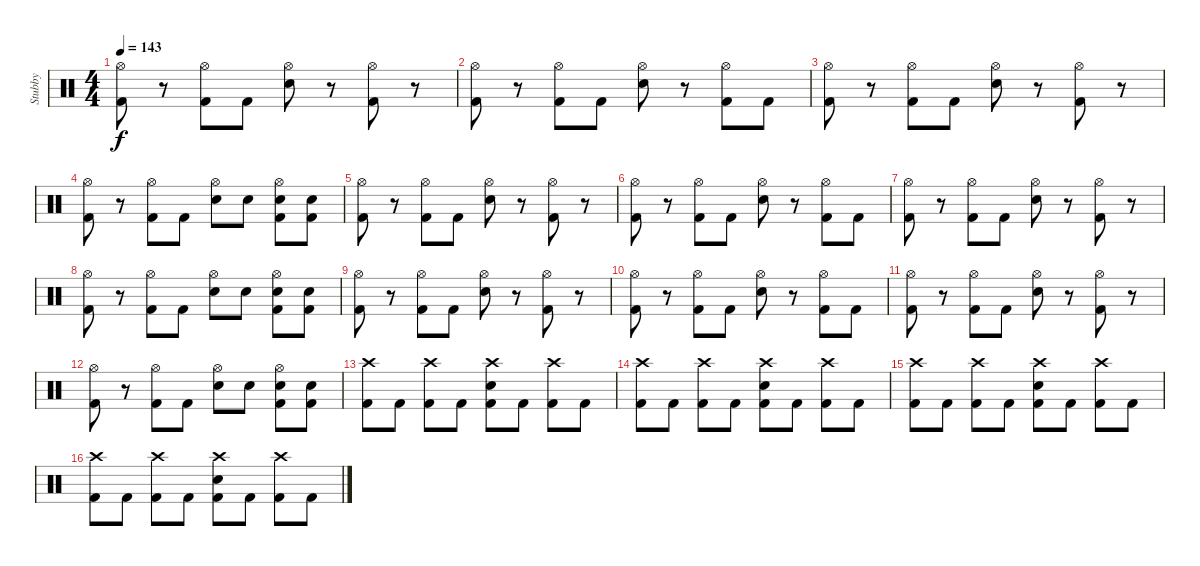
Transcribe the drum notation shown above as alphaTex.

\track ("Stubby" "Stubby") {instrument percussion}
\staff {score}
\articulation defaults
\ts (4 4)
\tempo 143
\clef neutral
\ks c
("Hi-Hat (open)" "Kick (hit) 2").8{dy f} r.8 ("Hi-Hat (open)" "Kick (hit) 2").8 "Kick (hit) 2".8 ("Hi-Hat (open)" "Electric Snare (hit)").8 r.8 ("Hi-Hat (open)" "Kick (hit) 2").8 r.8 |
("Hi-Hat (open)" "Kick (hit) 2").8 r.8 ("Hi-Hat (open)" "Kick (hit) 2").8 "Kick (hit) 2".8 ("Hi-Hat (open)" "Electric Snare (hit)").8 r.8 ("Hi-Hat (open)" "Kick (hit) 2").8 "Kick (hit) 2".8 |
("Hi-Hat (open)" "Kick (hit) 2").8 r.8 ("Hi-Hat (open)" "Kick (hit) 2").8 "Kick (hit) 2".8 ("Hi-Hat (open)" "Electric Snare (hit)").8 r.8 ("Hi-Hat (open)" "Kick (hit) 2").8 r.8 |
("Hi-Hat (open)" "Kick (hit) 2").8 r.8 ("Hi-Hat (open)" "Kick (hit) 2").8 "Kick (hit) 2".8 ("Hi-Hat (open)" "Electric Snare (hit)").8 "Electric Snare (hit)".8 ("Hi-Hat (open)" "Electric Snare (hit)" "Kick (hit) 2").8 ("Electric Snare (hit)" "Kick (hit) 2").8 |
("Hi-Hat (open)" "Kick (hit) 2").8 r.8 ("Hi-Hat (open)" "Kick (hit) 2").8 "Kick (hit) 2".8 ("Hi-Hat (open)" "Electric Snare (hit)").8 r.8 ("Hi-Hat (open)" "Kick (hit) 2").8 r.8 |
("Hi-Hat (open)" "Kick (hit) 2").8 r.8 ("Hi-Hat (open)" "Kick (hit) 2").8 "Kick (hit) 2".8 ("Hi-Hat (open)" "Electric Snare (hit)").8 r.8 ("Hi-Hat (open)" "Kick (hit) 2").8 "Kick (hit) 2".8 |
("Hi-Hat (open)" "Kick (hit) 2").8 r.8 ("Hi-Hat (open)" "Kick (hit) 2").8 "Kick (hit) 2".8 ("Hi-Hat (open)" "Electric Snare (hit)").8 r.8 ("Hi-Hat (open)" "Kick (hit) 2").8 r.8 |
("Hi-Hat (open)" "Kick (hit) 2").8 r.8 ("Hi-Hat (open)" "Kick (hit) 2").8 "Kick (hit) 2".8 ("Hi-Hat (open)" "Electric Snare (hit)").8 "Electric Snare (hit)".8 ("Hi-Hat (open)" "Electric Snare (hit)" "Kick (hit) 2").8 ("Electric Snare (hit)" "Kick (hit) 2").8 |
("Hi-Hat (open)" "Kick (hit) 2").8 r.8 ("Hi-Hat (open)" "Kick (hit) 2").8 "Kick (hit) 2".8 ("Hi-Hat (open)" "Electric Snare (hit)").8 r.8 ("Hi-Hat (open)" "Kick (hit) 2").8 r.8 |
("Hi-Hat (open)" "Kick (hit) 2").8 r.8 ("Hi-Hat (open)" "Kick (hit) 2").8 "Kick (hit) 2".8 ("Hi-Hat (open)" "Electric Snare (hit)").8 r.8 ("Hi-Hat (open)" "Kick (hit) 2").8 "Kick (hit) 2".8 |
("Hi-Hat (open)" "Kick (hit) 2").8 r.8 ("Hi-Hat (open)" "Kick (hit) 2").8 "Kick (hit) 2".8 ("Hi-Hat (open)" "Electric Snare (hit)").8 r.8 ("Hi-Hat (open)" "Kick (hit) 2").8 r.8 |
("Hi-Hat (open)" "Kick (hit) 2").8 r.8 ("Hi-Hat (open)" "Kick (hit) 2").8 "Kick (hit) 2".8 ("Hi-Hat (open)" "Electric Snare (hit)").8 "Electric Snare (hit)".8 ("Hi-Hat (open)" "Electric Snare (hit)" "Kick (hit) 2").8 ("Electric Snare (hit)" "Kick (hit) 2").8 |
("Crash high (hit)" "Kick (hit) 2").8 "Kick (hit) 2".8 ("Crash high (hit)" "Kick (hit) 2").8 "Kick (hit) 2".8 ("Crash high (hit)" "Electric Snare (hit)" "Kick (hit) 2").8 "Kick (hit) 2".8 ("Crash high (hit)" "Kick (hit) 2").8 "Kick (hit) 2".8 |
("Crash high (hit)" "Kick (hit) 2").8 "Kick (hit) 2".8 ("Crash high (hit)" "Kick (hit) 2").8 "Kick (hit) 2".8 ("Crash high (hit)" "Electric Snare (hit)" "Kick (hit) 2").8 "Kick (hit) 2".8 ("Crash high (hit)" "Kick (hit) 2").8 "Kick (hit) 2".8 |
("Crash high (hit)" "Kick (hit) 2").8 "Kick (hit) 2".8 ("Crash high (hit)" "Kick (hit) 2").8 "Kick (hit) 2".8 ("Crash high (hit)" "Electric Snare (hit)" "Kick (hit) 2").8 "Kick (hit) 2".8 ("Crash high (hit)" "Kick (hit) 2").8 "Kick (hit) 2".8 |
("Crash high (hit)" "Kick (hit) 2").8 "Kick (hit) 2".8 ("Crash high (hit)" "Kick (hit) 2").8 "Kick (hit) 2".8 ("Crash high (hit)" "Electric Snare (hit)" "Kick (hit) 2").8 "Kick (hit) 2".8 ("Crash high (hit)" "Kick (hit) 2").8 "Kick (hit) 2".8
